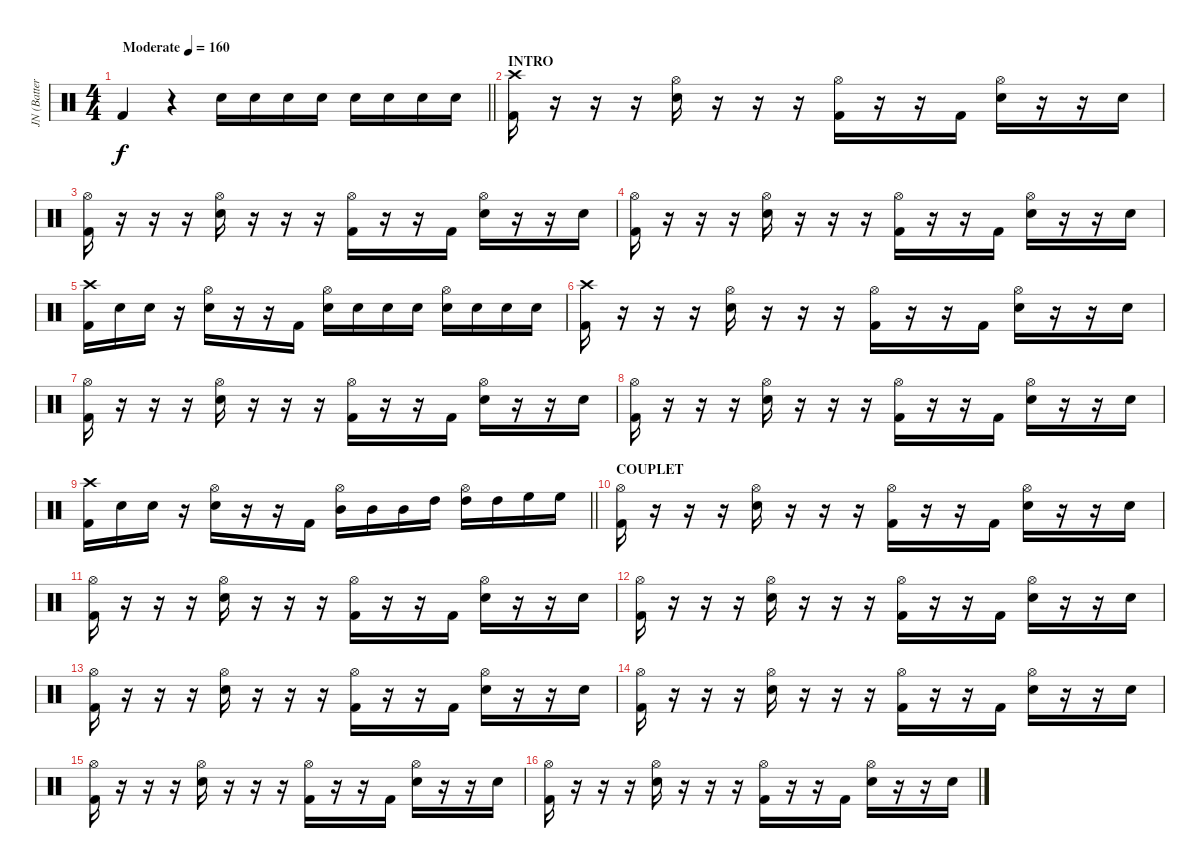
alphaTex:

\track ("JN (Batterie)" "JN (Batter") {instrument percussion}
\staff {score}
\articulation defaults
\ts (4 4)
\tempo (160 "Moderate")
\clef neutral
\barLineRight lightlight
\ks c "Kick (hit) 2".4{dy f}
r.4 "Electric Snare (hit)".16 "Snare (hit) 2".16 "Electric Snare (hit)".16 "Snare (hit) 2".16 "Snare (hit) 2".16 "Electric Snare (hit)".16 "Snare (hit) 2".16 "Electric Snare (hit)".16 |
\section ("" "INTRO")
("Crash high (hit)" "Kick (hit) 2").16 r.16 r.16 r.16 ("Hi-Hat (open)" "Electric Snare (hit)").16 r.16 r.16 r.16 ("Hi-Hat (open)" "Kick (hit) 2").16 r.16 r.16 "Kick (hit) 2".16 ("Hi-Hat (open)" "Electric Snare (hit)").16 r.16 r.16 "Electric Snare (hit)".16 |
("Hi-Hat (open)" "Kick (hit) 2").16 r.16 r.16 r.16 ("Hi-Hat (open)" "Electric Snare (hit)").16 r.16 r.16 r.16 ("Hi-Hat (open)" "Kick (hit) 2").16 r.16 r.16 "Kick (hit) 2".16 ("Hi-Hat (open)" "Electric Snare (hit)").16 r.16 r.16 "Electric Snare (hit)".16 |
("Hi-Hat (open)" "Kick (hit) 2").16 r.16 r.16 r.16 ("Hi-Hat (open)" "Electric Snare (hit)").16 r.16 r.16 r.16 ("Hi-Hat (open)" "Kick (hit) 2").16 r.16 r.16 "Kick (hit) 2".16 ("Hi-Hat (open)" "Electric Snare (hit)").16 r.16 r.16 "Electric Snare (hit)".16 |
("Crash high (hit)" "Kick (hit) 2").16 "Electric Snare (hit)".16 "Electric Snare (hit)".16 r.16 ("Hi-Hat (open)" "Electric Snare (hit)").16 r.16 r.16 "Kick (hit) 2".16 ("Hi-Hat (open)" "Electric Snare (hit)").16 "Electric Snare (hit)".16 "Electric Snare (hit)".16 "Electric Snare (hit)".16 ("Hi-Hat (open)" "Snare (hit) 2").16 "Electric Snare (hit)".16 "Electric Snare (hit)".16 "Electric Snare (hit)".16 |
("Crash high (hit)" "Kick (hit) 2").16 r.16 r.16 r.16 ("Hi-Hat (open)" "Electric Snare (hit)").16 r.16 r.16 r.16 ("Hi-Hat (open)" "Kick (hit) 2").16 r.16 r.16 "Kick (hit) 2".16 ("Hi-Hat (open)" "Electric Snare (hit)").16 r.16 r.16 "Electric Snare (hit)".16 |
("Hi-Hat (open)" "Kick (hit) 2").16 r.16 r.16 r.16 ("Hi-Hat (open)" "Electric Snare (hit)").16 r.16 r.16 r.16 ("Hi-Hat (open)" "Kick (hit) 2").16 r.16 r.16 "Kick (hit) 2".16 ("Hi-Hat (open)" "Electric Snare (hit)").16 r.16 r.16 "Electric Snare (hit)".16 |
("Hi-Hat (open)" "Kick (hit) 2").16 r.16 r.16 r.16 ("Hi-Hat (open)" "Electric Snare (hit)").16 r.16 r.16 r.16 ("Hi-Hat (open)" "Kick (hit) 2").16 r.16 r.16 "Kick (hit) 2".16 ("Hi-Hat (open)" "Electric Snare (hit)").16 r.16 r.16 "Electric Snare (hit)".16 |
\barLineRight lightlight
("Crash high (hit)" "Kick (hit) 2").16 "Electric Snare (hit)".16 "Electric Snare (hit)".16 r.16 ("Hi-Hat (open)" "Electric Snare (hit)").16 r.16 r.16 "Kick (hit) 2".16 ("Hi-Hat (open)" "Mid Tom (hit)").16 "Mid Tom (hit)".16 "Mid Tom (hit)".16 "High Tom (hit)".16 ("Hi-Hat (open)" "High Tom (hit)").16 "High Tom (hit)".16 "High Floor Tom (hit)".16 "High Floor Tom (hit)".16 |
\section ("" "COUPLET")
("Hi-Hat (open)" "Kick (hit) 2").16 r.16 r.16 r.16 ("Hi-Hat (open)" "Electric Snare (hit)").16 r.16 r.16 r.16 ("Hi-Hat (open)" "Kick (hit) 2").16 r.16 r.16 "Kick (hit) 2".16 ("Hi-Hat (open)" "Electric Snare (hit)").16 r.16 r.16 "Electric Snare (hit)".16 |
("Hi-Hat (open)" "Kick (hit) 2").16 r.16 r.16 r.16 ("Hi-Hat (open)" "Electric Snare (hit)").16 r.16 r.16 r.16 ("Hi-Hat (open)" "Kick (hit) 2").16 r.16 r.16 "Kick (hit) 2".16 ("Hi-Hat (open)" "Electric Snare (hit)").16 r.16 r.16 "Electric Snare (hit)".16 |
("Hi-Hat (open)" "Kick (hit) 2").16 r.16 r.16 r.16 ("Hi-Hat (open)" "Electric Snare (hit)").16 r.16 r.16 r.16 ("Hi-Hat (open)" "Kick (hit) 2").16 r.16 r.16 "Kick (hit) 2".16 ("Hi-Hat (open)" "Electric Snare (hit)").16 r.16 r.16 "Electric Snare (hit)".16 |
("Hi-Hat (open)" "Kick (hit) 2").16 r.16 r.16 r.16 ("Hi-Hat (open)" "Electric Snare (hit)").16 r.16 r.16 r.16 ("Hi-Hat (open)" "Kick (hit) 2").16 r.16 r.16 "Kick (hit) 2".16 ("Hi-Hat (open)" "Electric Snare (hit)").16 r.16 r.16 "Electric Snare (hit)".16 |
("Hi-Hat (open)" "Kick (hit) 2").16 r.16 r.16 r.16 ("Hi-Hat (open)" "Electric Snare (hit)").16 r.16 r.16 r.16 ("Hi-Hat (open)" "Kick (hit) 2").16 r.16 r.16 "Kick (hit) 2".16 ("Hi-Hat (open)" "Electric Snare (hit)").16 r.16 r.16 "Electric Snare (hit)".16 |
("Hi-Hat (open)" "Kick (hit) 2").16 r.16 r.16 r.16 ("Hi-Hat (open)" "Electric Snare (hit)").16 r.16 r.16 r.16 ("Hi-Hat (open)" "Kick (hit) 2").16 r.16 r.16 "Kick (hit) 2".16 ("Hi-Hat (open)" "Electric Snare (hit)").16 r.16 r.16 "Electric Snare (hit)".16 |
("Hi-Hat (open)" "Kick (hit) 2").16 r.16 r.16 r.16 ("Hi-Hat (open)" "Electric Snare (hit)").16 r.16 r.16 r.16 ("Hi-Hat (open)" "Kick (hit) 2").16 r.16 r.16 "Kick (hit) 2".16 ("Hi-Hat (open)" "Electric Snare (hit)").16 r.16 r.16 "Electric Snare (hit)".16
